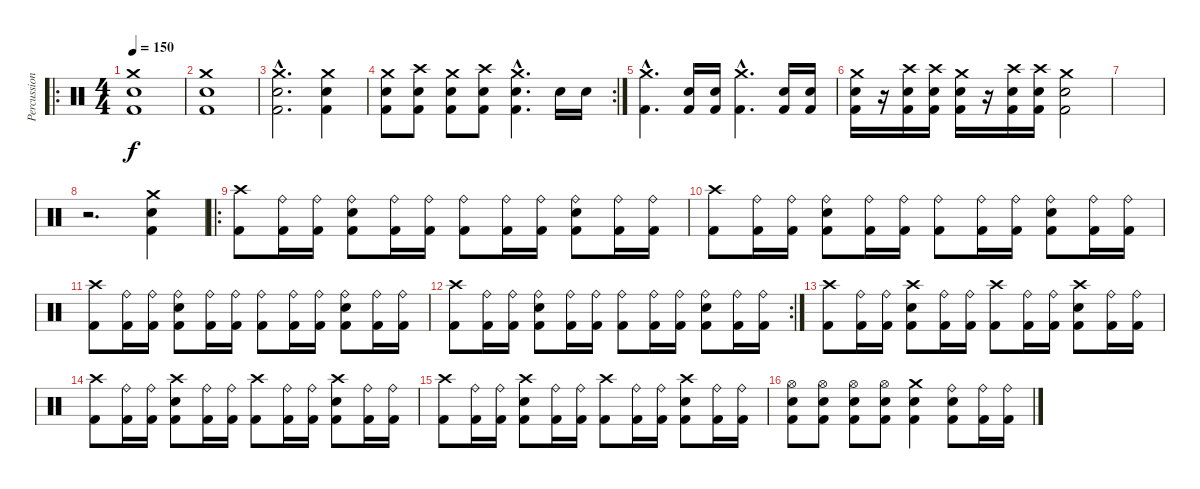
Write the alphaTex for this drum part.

\track ("Percussion" "Percussion") {instrument percussion}
\staff {score}
\articulation defaults
\ro
\ts (4 4)
\tempo 150
\clef neutral
\ks c
("Crash medium (hit)" "Snare (hit) 2" "Kick (hit) 2").1{dy f} |
("Crash medium (hit)" "Snare (hit) 2" "Kick (hit) 2").1 |
("Crash medium (hit)"{hac} "Snare (hit) 2"{hac} "Kick (hit) 2"{hac}).2{d} ("Crash medium (hit)" "Snare (hit) 2" "Kick (hit) 2").4 |
\rc 2
("Crash medium (hit)" "Snare (hit) 2" "Kick (hit) 2").8 ("Crash high (hit)" "Snare (hit) 2" "Kick (hit) 2").8 ("Crash medium (hit)" "Snare (hit) 2" "Kick (hit) 2").8 ("Crash high (hit)" "Snare (hit) 2" "Kick (hit) 2").8 ("Crash medium (hit)"{hac} "Snare (hit) 2"{hac} "Kick (hit) 2"{hac}).4{d} "Snare (hit) 2".16 "Snare (hit) 2".16 |
("Crash medium (hit)"{hac} "Kick (hit) 2"{hac}).4{d} ("Snare (hit) 2" "Kick (hit) 2").16 ("Snare (hit) 2" "Kick (hit) 2").16 ("Crash medium (hit)"{hac} "Kick (hit) 2"{hac}).4{d} ("Snare (hit) 2" "Kick (hit) 2").16 ("Snare (hit) 2" "Kick (hit) 2").16 |
("Crash medium (hit)" "Snare (hit) 2" "Kick (hit) 2").16 r.16 ("Crash high (hit)" "Snare (hit) 2" "Kick (hit) 2").16 ("Crash high (hit)" "Snare (hit) 2" "Kick (hit) 2").16 ("Crash medium (hit)" "Snare (hit) 2" "Kick (hit) 2").16 r.16 ("Crash high (hit)" "Snare (hit) 2" "Kick (hit) 2").16 ("Crash high (hit)" "Snare (hit) 2" "Kick (hit) 2").16 ("Crash medium (hit)" "Snare (hit) 2" "Kick (hit) 2").2 |
|
r.2{d} ("Crash medium (hit)" "Snare (hit) 2" "Kick (hit) 2").4 |
\ro
("Crash high (hit)" "Kick (hit) 2").8 ("Ride (bell)" "Kick (hit) 2").16 ("Ride (bell)" "Kick (hit) 2").16 ("Ride (bell)" "Snare (hit) 2" "Kick (hit) 2").8 ("Ride (bell)" "Kick (hit) 2").16 ("Ride (bell)" "Kick (hit) 2").16 ("Ride (bell)" "Kick (hit) 2").8 ("Ride (bell)" "Kick (hit) 2").16 ("Ride (bell)" "Kick (hit) 2").16 ("Ride (bell)" "Snare (hit) 2" "Kick (hit) 2").8 ("Ride (bell)" "Kick (hit) 2").16 ("Ride (bell)" "Kick (hit) 2").16 |
("Crash high (hit)" "Kick (hit) 2").8 ("Ride (bell)" "Kick (hit) 2").16 ("Ride (bell)" "Kick (hit) 2").16 ("Ride (bell)" "Snare (hit) 2" "Kick (hit) 2").8 ("Ride (bell)" "Kick (hit) 2").16 ("Ride (bell)" "Kick (hit) 2").16 ("Ride (bell)" "Kick (hit) 2").8 ("Ride (bell)" "Kick (hit) 2").16 ("Ride (bell)" "Kick (hit) 2").16 ("Ride (bell)" "Snare (hit) 2" "Kick (hit) 2").8 ("Ride (bell)" "Kick (hit) 2").16 ("Ride (bell)" "Kick (hit) 2").16 |
("Crash high (hit)" "Kick (hit) 2").8 ("Ride (bell)" "Kick (hit) 2").16 ("Ride (bell)" "Kick (hit) 2").16 ("Ride (bell)" "Snare (hit) 2" "Kick (hit) 2").8 ("Ride (bell)" "Kick (hit) 2").16 ("Ride (bell)" "Kick (hit) 2").16 ("Ride (bell)" "Kick (hit) 2").8 ("Ride (bell)" "Kick (hit) 2").16 ("Ride (bell)" "Kick (hit) 2").16 ("Ride (bell)" "Snare (hit) 2" "Kick (hit) 2").8 ("Ride (bell)" "Kick (hit) 2").16 ("Ride (bell)" "Kick (hit) 2").16 |
\rc 2
("Crash high (hit)" "Kick (hit) 2").8 ("Ride (bell)" "Kick (hit) 2").16 ("Ride (bell)" "Kick (hit) 2").16 ("Ride (bell)" "Snare (hit) 2" "Kick (hit) 2").8 ("Ride (bell)" "Kick (hit) 2").16 ("Ride (bell)" "Kick (hit) 2").16 ("Ride (bell)" "Kick (hit) 2").8 ("Ride (bell)" "Kick (hit) 2").16 ("Ride (bell)" "Kick (hit) 2").16 ("Ride (bell)" "Snare (hit) 2" "Kick (hit) 2").8 ("Ride (bell)" "Kick (hit) 2").16 ("Ride (bell)" "Kick (hit) 2").16 |
("Crash high (hit)" "Kick (hit) 2").8 ("Ride (bell)" "Kick (hit) 2").16 ("Ride (bell)" "Kick (hit) 2").16 ("Crash high (hit)" "Electric Snare (hit)" "Kick (hit) 2").8 ("Ride (bell)" "Kick (hit) 2").16 ("Ride (bell)" "Kick (hit) 2").16 ("Crash high (hit)" "Kick (hit) 2").8 ("Ride (bell)" "Kick (hit) 2").16 ("Ride (bell)" "Kick (hit) 2").16 ("Crash high (hit)" "Electric Snare (hit)" "Kick (hit) 2").8 ("Ride (bell)" "Kick (hit) 2").16 ("Ride (bell)" "Kick (hit) 2").16 |
("Crash high (hit)" "Kick (hit) 2").8 ("Ride (bell)" "Kick (hit) 2").16 ("Ride (bell)" "Kick (hit) 2").16 ("Crash high (hit)" "Electric Snare (hit)" "Kick (hit) 2").8 ("Ride (bell)" "Kick (hit) 2").16 ("Ride (bell)" "Kick (hit) 2").16 ("Crash high (hit)" "Kick (hit) 2").8 ("Ride (bell)" "Kick (hit) 2").16 ("Ride (bell)" "Kick (hit) 2").16 ("Crash high (hit)" "Electric Snare (hit)" "Kick (hit) 2").8 ("Ride (bell)" "Kick (hit) 2").16 ("Ride (bell)" "Kick (hit) 2").16 |
("Crash high (hit)" "Kick (hit) 2").8 ("Ride (bell)" "Kick (hit) 2").16 ("Ride (bell)" "Kick (hit) 2").16 ("Crash high (hit)" "Electric Snare (hit)" "Kick (hit) 2").8 ("Ride (bell)" "Kick (hit) 2").16 ("Ride (bell)" "Kick (hit) 2").16 ("Crash high (hit)" "Kick (hit) 2").8 ("Ride (bell)" "Kick (hit) 2").16 ("Ride (bell)" "Kick (hit) 2").16 ("Crash high (hit)" "Electric Snare (hit)" "Kick (hit) 2").8 ("Ride (bell)" "Kick (hit) 2").16 ("Ride (bell)" "Kick (hit) 2").16 |
("Hi-Hat (open)" "Electric Snare (hit)" "Kick (hit) 2").8 ("Hi-Hat (open)" "Electric Snare (hit)" "Kick (hit) 2").8 ("Hi-Hat (open)" "Electric Snare (hit)" "Kick (hit) 2").8 ("Hi-Hat (open)" "Electric Snare (hit)" "Kick (hit) 2").8 ("Crash medium (hit)" "Electric Snare (hit)" "Kick (hit) 2").4 ("Ride (bell)" "Electric Snare (hit)" "Kick (hit) 2").8 ("Ride (bell)" "Kick (hit) 2").16 ("Ride (bell)" "Kick (hit) 2").16
